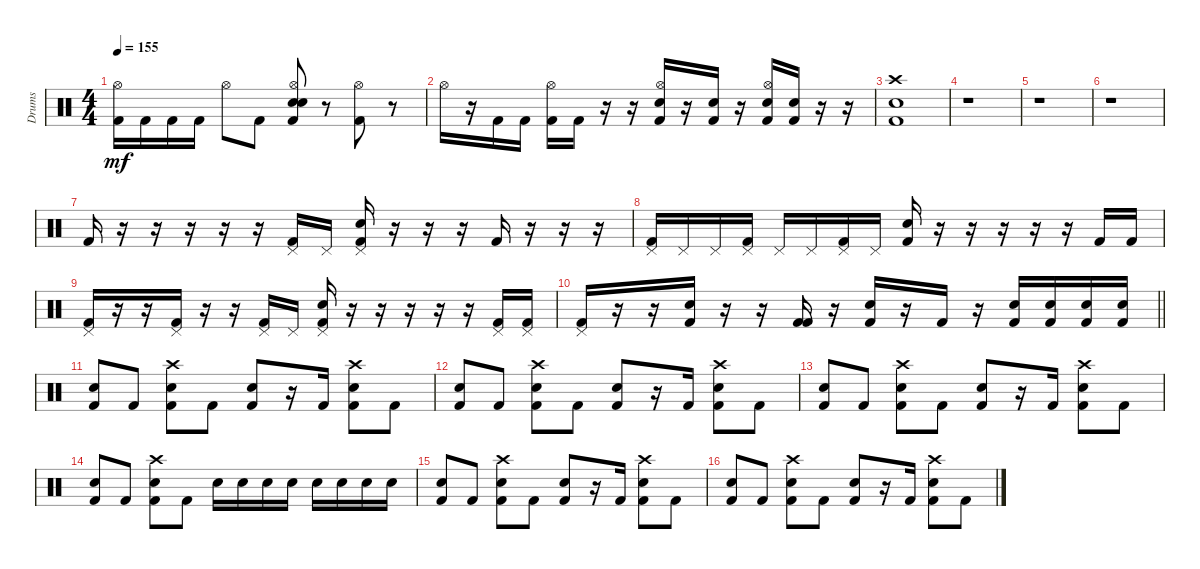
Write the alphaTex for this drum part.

\track ("Drums" "Drums") {instrument percussion}
\staff {score}
\articulation defaults
\ts (4 4)
\tempo 155
\clef neutral
\ks c
("Kick (hit) 2" "Hi-Hat (open)").16{dy mf} "Kick (hit) 2".16 "Kick (hit) 2".16 "Kick (hit) 2".16 "Hi-Hat (open)".8 "Kick (hit) 2".8 ("Snare (hit) 2" "Kick (hit) 2" "Electric Snare (hit)" "Hi-Hat (open)").8 r.8 ("Kick (hit) 2" "Hi-Hat (open)").8 r.8 |
"Hi-Hat (open)".16 r.16 "Kick (hit) 2".16 "Kick (hit) 2".16 ("Kick (hit) 2" "Hi-Hat (open)").16 "Kick (hit) 2".16 r.16 r.16 ("Kick (hit) 2" "Electric Snare (hit)" "Hi-Hat (open)").16 r.16 ("Kick (hit) 2" "Electric Snare (hit)").16 r.16 ("Kick (hit) 2" "Electric Snare (hit)" "Hi-Hat (open)").16 ("Kick (hit) 2" "Electric Snare (hit)").16 r.16 r.16 |
("Crash high (hit)" "Electric Snare (hit)" "Kick (hit) 2").1 |
r.1 |
r.1 |
r.1 |
"Kick (hit) 2".16 r.16 r.16 r.16 r.16 r.16 ("Pedal Hi-Hat (hit)" "Kick (hit) 2").16 "Pedal Hi-Hat (hit)".16 ("Pedal Hi-Hat (hit)" "Electric Snare (hit)" "Kick (hit) 2").16 r.16 r.16 r.16 "Kick (hit) 2".16 r.16 r.16 r.16 |
("Pedal Hi-Hat (hit)" "Kick (hit) 2").16 "Pedal Hi-Hat (hit)".16 "Pedal Hi-Hat (hit)".16 ("Pedal Hi-Hat (hit)" "Kick (hit) 2").16 "Pedal Hi-Hat (hit)".16 "Pedal Hi-Hat (hit)".16 ("Pedal Hi-Hat (hit)" "Kick (hit) 2").16 "Pedal Hi-Hat (hit)".16 ("Electric Snare (hit)" "Kick (hit) 2").16 r.16 r.16 r.16 r.16 r.16 "Kick (hit) 2".16 "Kick (hit) 2".16 |
("Pedal Hi-Hat (hit)" "Kick (hit) 2").16 r.16 r.16 ("Pedal Hi-Hat (hit)" "Kick (hit) 2").16 r.16 r.16 ("Pedal Hi-Hat (hit)" "Kick (hit) 2").16 "Pedal Hi-Hat (hit)".16 ("Pedal Hi-Hat (hit)" "Electric Snare (hit)" "Kick (hit) 2").16 r.16 r.16 r.16 r.16 r.16 ("Pedal Hi-Hat (hit)" "Kick (hit) 2").16 ("Pedal Hi-Hat (hit)" "Kick (hit) 2").16 |
\barLineRight lightlight
("Pedal Hi-Hat (hit)" "Kick (hit) 2").16 r.16 r.16 ("Electric Snare (hit)" "Kick (hit) 2").16 r.16 r.16 ("Kick (hit) 2" "Kick (hit) 2").16 r.16 ("Electric Snare (hit)" "Kick (hit) 2").16 r.16 "Kick (hit) 2".16 r.16 ("Electric Snare (hit)" "Kick (hit) 2").16 ("Snare (hit) 2" "Kick (hit) 2").16 ("Snare (hit) 2" "Kick (hit) 2").16 ("Snare (hit) 2" "Kick (hit) 2").16 |
\section ("" "")
("Kick (hit) 2" "Electric Snare (hit)").8 "Kick (hit) 2".8 ("Kick (hit) 2" "Electric Snare (hit)" "Crash high (hit)").8 "Kick (hit) 2".8 ("Kick (hit) 2" "Electric Snare (hit)").8 r.16 "Kick (hit) 2".16 ("Kick (hit) 2" "Electric Snare (hit)" "Crash high (hit)").8 "Kick (hit) 2".8 |
("Kick (hit) 2" "Electric Snare (hit)").8 "Kick (hit) 2".8 ("Kick (hit) 2" "Electric Snare (hit)" "Crash high (hit)").8 "Kick (hit) 2".8 ("Kick (hit) 2" "Electric Snare (hit)").8 r.16 "Kick (hit) 2".16 ("Kick (hit) 2" "Electric Snare (hit)" "Crash high (hit)").8 "Kick (hit) 2".8 |
("Kick (hit) 2" "Electric Snare (hit)").8 "Kick (hit) 2".8 ("Kick (hit) 2" "Electric Snare (hit)" "Crash high (hit)").8 "Kick (hit) 2".8 ("Kick (hit) 2" "Electric Snare (hit)").8 r.16 "Kick (hit) 2".16 ("Kick (hit) 2" "Electric Snare (hit)" "Crash high (hit)").8 "Kick (hit) 2".8 |
("Kick (hit) 2" "Electric Snare (hit)").8 "Kick (hit) 2".8 ("Kick (hit) 2" "Electric Snare (hit)" "Crash high (hit)").8 "Kick (hit) 2".8 "Electric Snare (hit)".16 "Electric Snare (hit)".16 "Electric Snare (hit)".16 "Electric Snare (hit)".16 "Electric Snare (hit)".16 "Electric Snare (hit)".16 "Electric Snare (hit)".16 "Electric Snare (hit)".16 |
("Kick (hit) 2" "Electric Snare (hit)").8 "Kick (hit) 2".8 ("Kick (hit) 2" "Electric Snare (hit)" "Crash high (hit)").8 "Kick (hit) 2".8 ("Kick (hit) 2" "Electric Snare (hit)").8 r.16 "Kick (hit) 2".16 ("Kick (hit) 2" "Electric Snare (hit)" "Crash high (hit)").8 "Kick (hit) 2".8 |
("Kick (hit) 2" "Electric Snare (hit)").8 "Kick (hit) 2".8 ("Kick (hit) 2" "Electric Snare (hit)" "Crash high (hit)").8 "Kick (hit) 2".8 ("Kick (hit) 2" "Electric Snare (hit)").8 r.16 "Kick (hit) 2".16 ("Kick (hit) 2" "Electric Snare (hit)" "Crash high (hit)").8 "Kick (hit) 2".8
